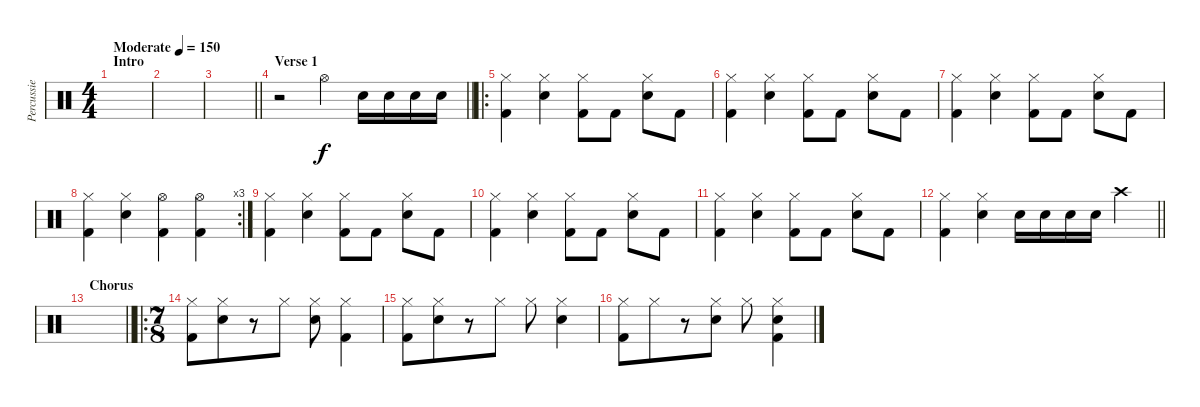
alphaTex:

\track ("Percussie" "Percussie") {instrument percussion}
\staff {score}
\articulation defaults
\ts (4 4)
\section ("" "Intro")
\tempo (150 "Moderate")
\clef neutral
\ks c
|
|
\barLineRight lightlight
|
\section ("" "Verse 1")
\barLineRight lightlight
r.2 "Hi-Hat (open)".4 "Snare (hit) 2".16 "Snare (hit) 2".16 "Snare (hit) 2".16 "Snare (hit) 2".16 |
\ro
("Hi-Hat (closed)" "Kick (hit) 2").4 ("Hi-Hat (closed)" "Snare (hit) 2").4 ("Hi-Hat (closed)" "Kick (hit) 2").8 "Kick (hit) 2".8 ("Hi-Hat (closed)" "Snare (hit) 2").8 "Kick (hit) 2".8 |
("Hi-Hat (closed)" "Kick (hit) 2").4 ("Hi-Hat (closed)" "Snare (hit) 2").4 ("Hi-Hat (closed)" "Kick (hit) 2").8 "Kick (hit) 2".8 ("Hi-Hat (closed)" "Snare (hit) 2").8 "Kick (hit) 2".8 |
("Hi-Hat (closed)" "Kick (hit) 2").4 ("Hi-Hat (closed)" "Snare (hit) 2").4 ("Hi-Hat (closed)" "Kick (hit) 2").8 "Kick (hit) 2".8 ("Hi-Hat (closed)" "Snare (hit) 2").8 "Kick (hit) 2".8 |
\rc 3
("Hi-Hat (closed)" "Kick (hit) 2").4 ("Hi-Hat (closed)" "Snare (hit) 2").4 ("Hi-Hat (open)" "Kick (hit) 2").4 ("Hi-Hat (open)" "Kick (hit) 2").4 |
("Hi-Hat (closed)" "Kick (hit) 2").4 ("Hi-Hat (closed)" "Snare (hit) 2").4 ("Hi-Hat (closed)" "Kick (hit) 2").8 "Kick (hit) 2".8 ("Hi-Hat (closed)" "Snare (hit) 2").8 "Kick (hit) 2".8 |
("Hi-Hat (closed)" "Kick (hit) 2").4 ("Hi-Hat (closed)" "Snare (hit) 2").4 ("Hi-Hat (closed)" "Kick (hit) 2").8 "Kick (hit) 2".8 ("Hi-Hat (closed)" "Snare (hit) 2").8 "Kick (hit) 2".8 |
("Hi-Hat (closed)" "Kick (hit) 2").4 ("Hi-Hat (closed)" "Snare (hit) 2").4 ("Hi-Hat (closed)" "Kick (hit) 2").8 "Kick (hit) 2".8 ("Hi-Hat (closed)" "Snare (hit) 2").8 "Kick (hit) 2".8 |
\barLineRight lightlight
("Hi-Hat (closed)" "Kick (hit) 2").4 ("Hi-Hat (closed)" "Snare (hit) 2").4 "Snare (hit) 2".16 "Snare (hit) 2".16 "Snare (hit) 2".16 "Snare (hit) 2".16 "Crash high (hit)".4 |
\section ("" "Chorus")
\barLineRight lightlight
|
\ro
\ts (7 8)
("Kick (hit) 2" "Hi-Hat (closed)").8 ("Electric Snare (hit)" "Hi-Hat (closed)").8 r.8 "Hi-Hat (closed)".8 ("Electric Snare (hit)" "Hi-Hat (closed)").8 ("Kick (hit) 2" "Hi-Hat (closed)").4 |
("Kick (hit) 2" "Hi-Hat (closed)").8 ("Electric Snare (hit)" "Hi-Hat (closed)").8 r.8 "Hi-Hat (closed)".8 "Hi-Hat (closed)".8 ("Electric Snare (hit)" "Hi-Hat (closed)").4 |
("Kick (hit) 2" "Hi-Hat (closed)").8 "Hi-Hat (closed)".8 r.8 ("Electric Snare (hit)" "Hi-Hat (closed)").8 "Hi-Hat (closed)".8 ("Kick (hit) 2" "Electric Snare (hit)" "Hi-Hat (closed)").4
